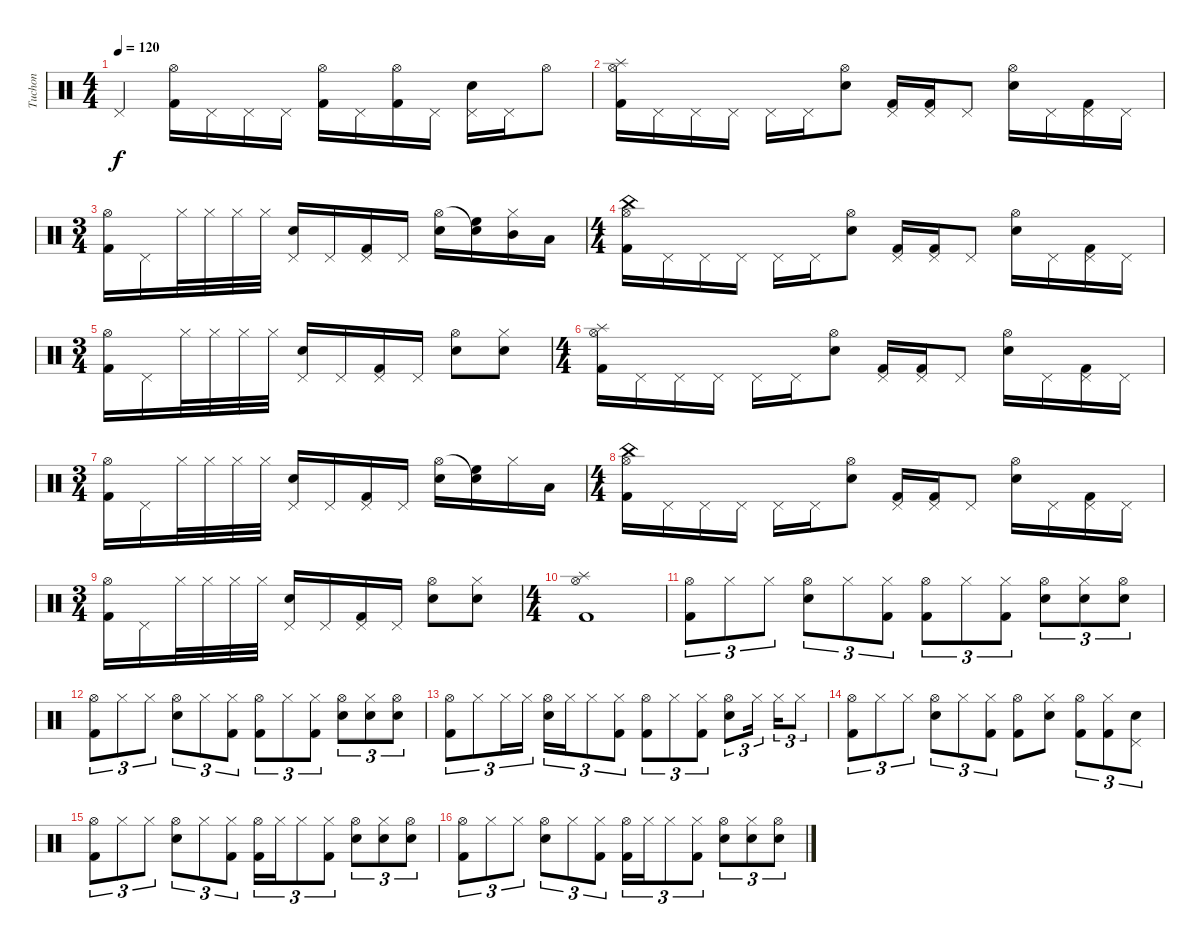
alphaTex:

\track ("Tuchon" "Tuchon") {instrument percussion}
\staff {score}
\articulation defaults
\ts (4 4)
\tempo 120
\clef neutral
\ks c "Pedal Hi-Hat (hit)".4{dy f}
("Hi-Hat (open)" "Kick (hit) 2").16 "Pedal Hi-Hat (hit)".16 "Pedal Hi-Hat (hit)".16 "Pedal Hi-Hat (hit)".16 ("Hi-Hat (open)" "Kick (hit) 2").16 "Pedal Hi-Hat (hit)".16 ("Hi-Hat (open)" "Kick (hit) 2").16 "Pedal Hi-Hat (hit)".16 ("Pedal Hi-Hat (hit)" "Electric Snare (hit)").16 "Pedal Hi-Hat (hit)".16 "Hi-Hat (open)".8 |
("Splash (hit)" "Hi-Hat (open)" "Kick (hit) 2").16 "Pedal Hi-Hat (hit)".16 "Pedal Hi-Hat (hit)".16 "Pedal Hi-Hat (hit)".16 "Pedal Hi-Hat (hit)".16 "Pedal Hi-Hat (hit)".16 ("Hi-Hat (open)" "Electric Snare (hit)").8 ("Pedal Hi-Hat (hit)" "Kick (hit) 2").16 ("Pedal Hi-Hat (hit)" "Kick (hit) 2").16 "Pedal Hi-Hat (hit)".8 ("Hi-Hat (open)" "Electric Snare (hit)").16 "Pedal Hi-Hat (hit)".16 ("Pedal Hi-Hat (hit)" "Kick (hit) 2").16 "Pedal Hi-Hat (hit)".16 |
\ts (3 4)
("Hi-Hat (open)" "Kick (hit) 2").16 "Pedal Hi-Hat (hit)".16 "Hi-Hat (closed)".32 "Hi-Hat (closed)".32 "Hi-Hat (closed)".32 "Hi-Hat (closed)".32 ("Pedal Hi-Hat (hit)" "Electric Snare (hit)").16 "Pedal Hi-Hat (hit)".16 ("Pedal Hi-Hat (hit)" "Kick (hit) 2").16 "Pedal Hi-Hat (hit)".16 ("Hi-Hat (open)" "Electric Snare (hit)").16 ("Snare (hit)"{t} "High Floor Tom (hit)").16 ("Hi-Hat (closed)" "Mid Tom (hit)").16 "Low Tom (hit)".16 |
\ts (4 4)
("China (hit)" "Hi-Hat (open)" "Kick (hit) 2").16 "Pedal Hi-Hat (hit)".16 "Pedal Hi-Hat (hit)".16 "Pedal Hi-Hat (hit)".16 "Pedal Hi-Hat (hit)".16 "Pedal Hi-Hat (hit)".16 ("Hi-Hat (open)" "Electric Snare (hit)").8 ("Pedal Hi-Hat (hit)" "Kick (hit) 2").16 ("Pedal Hi-Hat (hit)" "Kick (hit) 2").16 "Pedal Hi-Hat (hit)".8 ("Hi-Hat (open)" "Electric Snare (hit)").16 "Pedal Hi-Hat (hit)".16 ("Pedal Hi-Hat (hit)" "Kick (hit) 2").16 "Pedal Hi-Hat (hit)".16 |
\ts (3 4)
("Hi-Hat (open)" "Kick (hit) 2").16 "Pedal Hi-Hat (hit)".16 "Hi-Hat (closed)".32 "Hi-Hat (closed)".32 "Hi-Hat (closed)".32 "Hi-Hat (closed)".32 ("Pedal Hi-Hat (hit)" "Electric Snare (hit)").16 "Pedal Hi-Hat (hit)".16 ("Pedal Hi-Hat (hit)" "Kick (hit) 2").16 "Pedal Hi-Hat (hit)".16 ("Hi-Hat (open)" "Electric Snare (hit)").8 ("Hi-Hat (closed)" "Electric Snare (hit)").8 |
\ts (4 4)
("Splash (hit)" "Hi-Hat (open)" "Kick (hit) 2").16 "Pedal Hi-Hat (hit)".16 "Pedal Hi-Hat (hit)".16 "Pedal Hi-Hat (hit)".16 "Pedal Hi-Hat (hit)".16 "Pedal Hi-Hat (hit)".16 ("Hi-Hat (open)" "Electric Snare (hit)").8 ("Pedal Hi-Hat (hit)" "Kick (hit) 2").16 ("Pedal Hi-Hat (hit)" "Kick (hit) 2").16 "Pedal Hi-Hat (hit)".8 ("Hi-Hat (open)" "Electric Snare (hit)").16 "Pedal Hi-Hat (hit)".16 ("Pedal Hi-Hat (hit)" "Kick (hit) 2").16 "Pedal Hi-Hat (hit)".16 |
\ts (3 4)
("Hi-Hat (open)" "Kick (hit) 2").16 "Pedal Hi-Hat (hit)".16 "Hi-Hat (closed)".32 "Hi-Hat (closed)".32 "Hi-Hat (closed)".32 "Hi-Hat (closed)".32 ("Pedal Hi-Hat (hit)" "Electric Snare (hit)").16 "Pedal Hi-Hat (hit)".16 ("Pedal Hi-Hat (hit)" "Kick (hit) 2").16 "Pedal Hi-Hat (hit)".16 ("Hi-Hat (open)" "Electric Snare (hit)").16 ("Snare (hit)"{t} "High Floor Tom (hit)").16 "Hi-Hat (closed)".16 "Low Tom (hit)".16 |
\ts (4 4)
("China (hit)" "Hi-Hat (open)" "Kick (hit) 2").16 "Pedal Hi-Hat (hit)".16 "Pedal Hi-Hat (hit)".16 "Pedal Hi-Hat (hit)".16 "Pedal Hi-Hat (hit)".16 "Pedal Hi-Hat (hit)".16 ("Hi-Hat (open)" "Electric Snare (hit)").8 ("Pedal Hi-Hat (hit)" "Kick (hit) 2").16 ("Pedal Hi-Hat (hit)" "Kick (hit) 2").16 "Pedal Hi-Hat (hit)".8 ("Hi-Hat (open)" "Electric Snare (hit)").16 "Pedal Hi-Hat (hit)".16 ("Pedal Hi-Hat (hit)" "Kick (hit) 2").16 "Pedal Hi-Hat (hit)".16 |
\ts (3 4)
("Hi-Hat (open)" "Kick (hit) 2").16 "Pedal Hi-Hat (hit)".16 "Hi-Hat (closed)".32 "Hi-Hat (closed)".32 "Hi-Hat (closed)".32 "Hi-Hat (closed)".32 ("Pedal Hi-Hat (hit)" "Electric Snare (hit)").16 "Pedal Hi-Hat (hit)".16 ("Pedal Hi-Hat (hit)" "Kick (hit) 2").16 "Pedal Hi-Hat (hit)".16 ("Hi-Hat (open)" "Electric Snare (hit)").8 ("Hi-Hat (closed)" "Electric Snare (hit)").8 |
\ts (4 4)
("Hi-Hat (open)" "Splash (hit)" "Kick (hit) 2").1 |
("Hi-Hat (open)" "Kick (hit) 2").8{tu (3 2)} "Hi-Hat (closed)".8{tu (3 2)} "Hi-Hat (closed)".8{tu (3 2)} ("Hi-Hat (open)" "Electric Snare (hit)").8{tu (3 2)} "Hi-Hat (closed)".8{tu (3 2)} ("Hi-Hat (closed)" "Kick (hit) 2").8{tu (3 2)} ("Hi-Hat (open)" "Kick (hit) 2").8{tu (3 2)} "Hi-Hat (closed)".8{tu (3 2)} ("Hi-Hat (closed)" "Kick (hit) 2").8{tu (3 2)} ("Hi-Hat (open)" "Electric Snare (hit)").8{tu (3 2)} ("Hi-Hat (closed)" "Electric Snare (hit)").8{tu (3 2)} ("Hi-Hat (open)" "Electric Snare (hit)").8{tu (3 2)} |
("Hi-Hat (open)" "Kick (hit) 2").8{tu (3 2)} "Hi-Hat (closed)".8{tu (3 2)} "Hi-Hat (closed)".8{tu (3 2)} ("Hi-Hat (open)" "Electric Snare (hit)").8{tu (3 2)} "Hi-Hat (closed)".8{tu (3 2)} ("Hi-Hat (closed)" "Kick (hit) 2").8{tu (3 2)} ("Hi-Hat (open)" "Kick (hit) 2").8{tu (3 2)} "Hi-Hat (closed)".8{tu (3 2)} ("Hi-Hat (closed)" "Kick (hit) 2").8{tu (3 2)} ("Hi-Hat (open)" "Electric Snare (hit)").8{tu (3 2)} ("Hi-Hat (closed)" "Electric Snare (hit)").8{tu (3 2)} ("Hi-Hat (open)" "Electric Snare (hit)").8{tu (3 2)} |
("Hi-Hat (open)" "Kick (hit) 2").8{tu (3 2)} "Hi-Hat (closed)".8{tu (3 2)} "Hi-Hat (closed)".16{tu (3 2)} "Hi-Hat (closed)".16{tu (3 2)} ("Hi-Hat (open)" "Electric Snare (hit)").16{tu (3 2)} "Hi-Hat (closed)".16{tu (3 2)} "Hi-Hat (closed)".8{tu (3 2)} ("Hi-Hat (closed)" "Kick (hit) 2").8{tu (3 2)} ("Hi-Hat (open)" "Kick (hit) 2").8{tu (3 2)} "Hi-Hat (closed)".8{tu (3 2)} ("Hi-Hat (closed)" "Kick (hit) 2").8{tu (3 2)} ("Hi-Hat (open)" "Electric Snare (hit)").8{tu (3 2)} "Hi-Hat (closed)".16{tu (3 2)} "Hi-Hat (closed)".16{tu (3 2)} "Hi-Hat (closed)".8{tu (3 2)} |
("Hi-Hat (open)" "Kick (hit) 2").8{tu (3 2)} "Hi-Hat (closed)".8{tu (3 2)} "Hi-Hat (closed)".8{tu (3 2)} ("Hi-Hat (open)" "Electric Snare (hit)").8{tu (3 2)} "Hi-Hat (closed)".8{tu (3 2)} ("Hi-Hat (closed)" "Kick (hit) 2").8{tu (3 2)} ("Hi-Hat (open)" "Kick (hit) 2").8 ("Hi-Hat (closed)" "Electric Snare (hit)").8 ("Hi-Hat (open)" "Kick (hit) 2").8{tu (3 2)} ("Hi-Hat (closed)" "Kick (hit) 2").8{tu (3 2)} ("Pedal Hi-Hat (hit)" "Electric Snare (hit)").8{tu (3 2)} |
("Hi-Hat (open)" "Kick (hit) 2").8{tu (3 2)} "Hi-Hat (closed)".8{tu (3 2)} "Hi-Hat (closed)".8{tu (3 2)} ("Hi-Hat (open)" "Electric Snare (hit)").8{tu (3 2)} "Hi-Hat (closed)".8{tu (3 2)} ("Hi-Hat (closed)" "Kick (hit) 2").8{tu (3 2)} ("Hi-Hat (open)" "Kick (hit) 2").16{tu (3 2)} "Hi-Hat (closed)".16{tu (3 2)} "Hi-Hat (closed)".8{tu (3 2)} ("Hi-Hat (closed)" "Kick (hit) 2").8{tu (3 2)} ("Hi-Hat (open)" "Electric Snare (hit)").8{tu (3 2)} ("Hi-Hat (closed)" "Electric Snare (hit)").8{tu (3 2)} ("Hi-Hat (open)" "Electric Snare (hit)").8{tu (3 2)} |
("Hi-Hat (open)" "Kick (hit) 2").8{tu (3 2)} "Hi-Hat (closed)".8{tu (3 2)} "Hi-Hat (closed)".8{tu (3 2)} ("Hi-Hat (open)" "Electric Snare (hit)").8{tu (3 2)} "Hi-Hat (closed)".8{tu (3 2)} ("Hi-Hat (closed)" "Kick (hit) 2").8{tu (3 2)} ("Hi-Hat (open)" "Kick (hit) 2").16{tu (3 2)} "Hi-Hat (closed)".16{tu (3 2)} "Hi-Hat (closed)".8{tu (3 2)} ("Hi-Hat (closed)" "Kick (hit) 2").8{tu (3 2)} ("Hi-Hat (open)" "Electric Snare (hit)").8{tu (3 2)} ("Hi-Hat (closed)" "Electric Snare (hit)").8{tu (3 2)} ("Hi-Hat (open)" "Electric Snare (hit)").8{tu (3 2)}
